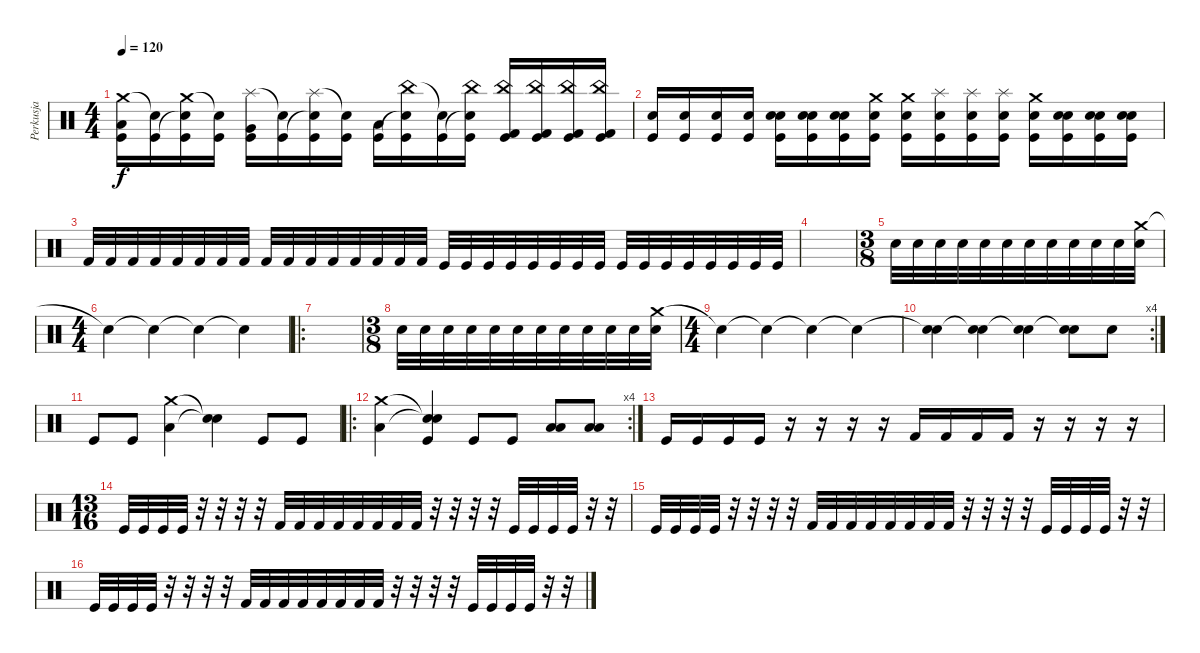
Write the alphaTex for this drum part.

\track ("Perkusja" "Perkusja") {instrument percussion}
\staff {score}
\articulation defaults
\ts (4 4)
\tempo 120
\clef neutral
\ks c
("Crash medium (hit)" "Low Tom (hit)" "Kick (hit)").16{dy f} ("Snare (hit)"{t} "Kick (hit)").16 ("Crash medium (hit)" "Snare (hit)"{t} "Kick (hit)").16 ("Snare (hit)"{t} "Kick (hit)").16 ("Splash (hit)" "Very Low Tom (hit)" "Kick (hit)").16 ("Snare (hit)"{t} "Kick (hit)").16 ("Splash (hit)" "Snare (hit)"{t} "Kick (hit)").16 ("Snare (hit)"{t} "Kick (hit)").16 ("Low Floor Tom (hit)" "Kick (hit)").16 ("China (hit)" "Snare (hit)"{t} "Kick (hit)").16 ("Snare (hit)"{t} "Kick (hit)").16 ("China (hit)" "Snare (hit)"{t} "Kick (hit)").16 ("China (hit)" "Kick (hit) 2" "Kick (hit)").16 ("China (hit)" "Kick (hit) 2" "Kick (hit)").16 ("China (hit)" "Kick (hit) 2" "Kick (hit)").16 ("China (hit)" "Kick (hit) 2" "Kick (hit)").16 |
("Kick (hit)" "Snare (hit) 2").16 ("Kick (hit)" "Snare (hit) 2").16 ("Kick (hit)" "Snare (hit) 2").16 ("Kick (hit)" "Snare (hit) 2").16 ("Electric Snare (hit)" "Kick (hit)" "Snare (hit) 2").16 ("Electric Snare (hit)" "Kick (hit)" "Snare (hit) 2").16 ("Electric Snare (hit)" "Kick (hit)" "Snare (hit) 2").16 ("Crash medium (hit)" "Kick (hit)" "Snare (hit) 2").16 ("Crash medium (hit)" "Kick (hit)" "Snare (hit) 2").16 ("Splash (hit)" "Kick (hit)" "Snare (hit) 2").16 ("Splash (hit)" "Kick (hit)" "Snare (hit) 2").16 ("Splash (hit)" "Kick (hit)" "Snare (hit) 2").16 ("Crash medium (hit)" "Kick (hit)" "Snare (hit) 2").16 ("Electric Snare (hit)" "Kick (hit)" "Snare (hit) 2").16 ("Electric Snare (hit)" "Kick (hit)" "Snare (hit) 2").16 ("Electric Snare (hit)" "Kick (hit)" "Snare (hit) 2").16 |
"Kick (hit) 2".32 "Kick (hit) 2".32 "Kick (hit) 2".32 "Kick (hit) 2".32 "Kick (hit) 2".32 "Kick (hit) 2".32 "Kick (hit) 2".32 "Kick (hit) 2".32 "Kick (hit) 2".32 "Kick (hit) 2".32 "Kick (hit) 2".32 "Kick (hit) 2".32 "Kick (hit) 2".32 "Kick (hit) 2".32 "Kick (hit) 2".32 "Kick (hit) 2".32 "Kick (hit)".32 "Kick (hit)".32 "Kick (hit)".32 "Kick (hit)".32 "Kick (hit)".32 "Kick (hit)".32 "Kick (hit)".32 "Kick (hit)".32 "Kick (hit)".32 "Kick (hit)".32 "Kick (hit)".32 "Kick (hit)".32 "Kick (hit)".32 "Kick (hit)".32 "Kick (hit)".32 "Kick (hit)".32 |
|
\ts (3 8)
"Electric Snare (hit)".32 "Electric Snare (hit)".32 "Electric Snare (hit)".32 "Electric Snare (hit)".32 "Electric Snare (hit)".32 "Electric Snare (hit)".32 "Electric Snare (hit)".32 "Electric Snare (hit)".32 "Electric Snare (hit)".32 "Electric Snare (hit)".32 "Electric Snare (hit)".32 ("Crash medium (hit)" "Electric Snare (hit)").32 |
\ts (4 4)
"Snare (hit)"{t}.4 "Snare (hit)"{t}.4 "Snare (hit)"{t}.4 "Snare (hit)"{t}.4 |
\ro
|
\ts (3 8)
"Electric Snare (hit)".32 "Electric Snare (hit)".32 "Electric Snare (hit)".32 "Electric Snare (hit)".32 "Electric Snare (hit)".32 "Electric Snare (hit)".32 "Electric Snare (hit)".32 "Electric Snare (hit)".32 "Electric Snare (hit)".32 "Electric Snare (hit)".32 "Electric Snare (hit)".32 ("Crash medium (hit)" "Electric Snare (hit)").32 |
\ts (4 4)
"Snare (hit)"{t}.4 "Snare (hit)"{t}.4 "Snare (hit)"{t}.4 "Snare (hit)"{t}.4 |
\rc 4
("Snare (hit)"{t} "Electric Snare (hit)").4 ("Snare (hit)"{t} "Electric Snare (hit)").4 ("Snare (hit)"{t} "Electric Snare (hit)").4 ("Snare (hit)"{t} "Electric Snare (hit)").8 "Electric Snare (hit)".8 |
"Kick (hit)".8 "Kick (hit)".8 ("Crash medium (hit)" "Low Tom (hit)").4 ("Snare (hit)"{t} "Snare (hit)"{t}).4 "Kick (hit)".8 "Kick (hit)".8 |
\ro
\rc 4
("Crash medium (hit)" "Low Tom (hit)").4 ("Snare (hit)"{t} "Snare (hit)"{t} "Kick (hit)").4 "Kick (hit)".8 "Kick (hit)".8 ("Low Tom (hit)" "Low Tom (hit)").8 ("Low Tom (hit)" "Low Tom (hit)").8 |
"Kick (hit)".16 "Kick (hit)".16 "Kick (hit)".16 "Kick (hit)".16 r.16 r.16 r.16 r.16 "Kick (hit) 2".16 "Kick (hit) 2".16 "Kick (hit) 2".16 "Kick (hit) 2".16 r.16 r.16 r.16 r.16 |
\ts (13 16)
"Kick (hit)".32 "Kick (hit)".32 "Kick (hit)".32 "Kick (hit)".32 r.32 r.32 r.32 r.32 "Kick (hit) 2".32 "Kick (hit) 2".32 "Kick (hit) 2".32 "Kick (hit) 2".32 "Kick (hit) 2".32 "Kick (hit) 2".32 "Kick (hit) 2".32 "Kick (hit) 2".32 r.32 r.32 r.32 r.32 "Kick (hit)".32 "Kick (hit)".32 "Kick (hit)".32 "Kick (hit)".32 r.32 r.32 |
"Kick (hit)".32 "Kick (hit)".32 "Kick (hit)".32 "Kick (hit)".32 r.32 r.32 r.32 r.32 "Kick (hit) 2".32 "Kick (hit) 2".32 "Kick (hit) 2".32 "Kick (hit) 2".32 "Kick (hit) 2".32 "Kick (hit) 2".32 "Kick (hit) 2".32 "Kick (hit) 2".32 r.32 r.32 r.32 r.32 "Kick (hit)".32 "Kick (hit)".32 "Kick (hit)".32 "Kick (hit)".32 r.32 r.32 |
"Kick (hit)".32 "Kick (hit)".32 "Kick (hit)".32 "Kick (hit)".32 r.32 r.32 r.32 r.32 "Kick (hit) 2".32 "Kick (hit) 2".32 "Kick (hit) 2".32 "Kick (hit) 2".32 "Kick (hit) 2".32 "Kick (hit) 2".32 "Kick (hit) 2".32 "Kick (hit) 2".32 r.32 r.32 r.32 r.32 "Kick (hit)".32 "Kick (hit)".32 "Kick (hit)".32 "Kick (hit)".32 r.32 r.32
